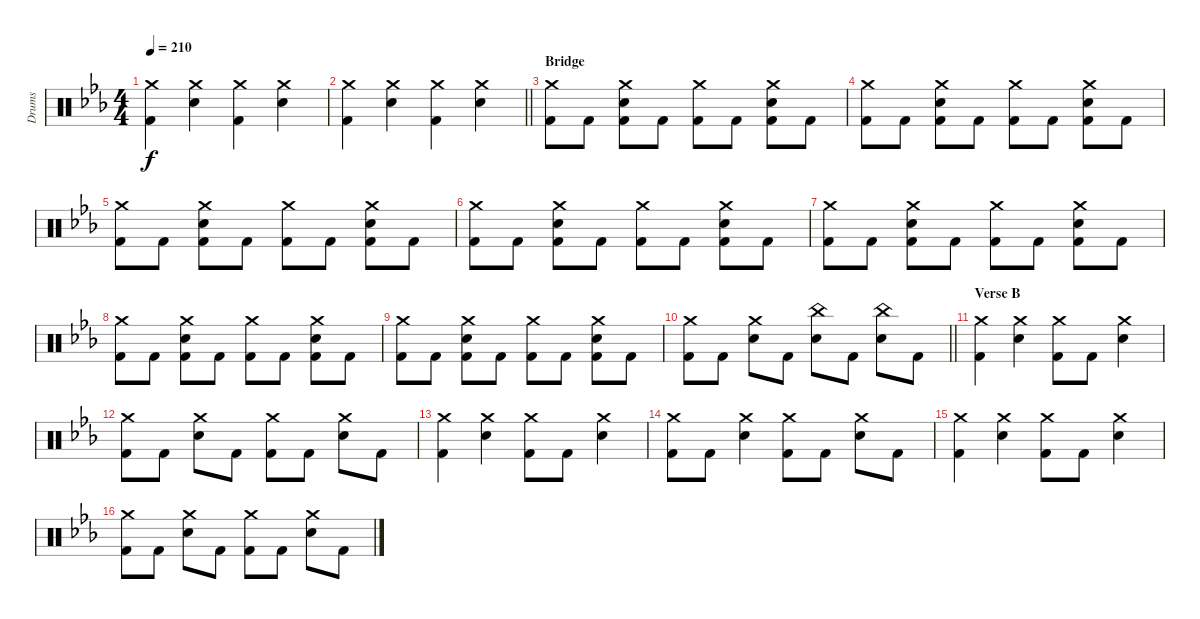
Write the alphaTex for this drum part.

\track ("Drums" "Drums") {instrument percussion}
\staff {score}
\articulation defaults
\ts (4 4)
\tempo 210
\clef neutral
\ks cminor
("Crash medium (hit)" "Kick (hit) 2").4{dy f} ("Crash medium (hit)" "Electric Snare (hit)").4 ("Crash medium (hit)" "Kick (hit) 2").4 ("Crash medium (hit)" "Electric Snare (hit)").4 |
\barLineRight lightlight
("Crash medium (hit)" "Kick (hit) 2").4 ("Crash medium (hit)" "Electric Snare (hit)").4 ("Crash medium (hit)" "Kick (hit) 2").4 ("Crash medium (hit)" "Electric Snare (hit)").4 |
\section ("" "Bridge")
("Crash medium (hit)" "Kick (hit) 2").8 "Kick (hit) 2".8 ("Crash medium (hit)" "Electric Snare (hit)" "Kick (hit) 2").8 "Kick (hit) 2".8 ("Crash medium (hit)" "Kick (hit) 2").8 "Kick (hit) 2".8 ("Crash medium (hit)" "Electric Snare (hit)" "Kick (hit) 2").8 "Kick (hit) 2".8 |
("Crash medium (hit)" "Kick (hit) 2").8 "Kick (hit) 2".8 ("Crash medium (hit)" "Electric Snare (hit)" "Kick (hit) 2").8 "Kick (hit) 2".8 ("Crash medium (hit)" "Kick (hit) 2").8 "Kick (hit) 2".8 ("Crash medium (hit)" "Electric Snare (hit)" "Kick (hit) 2").8 "Kick (hit) 2".8 |
("Crash medium (hit)" "Kick (hit) 2").8 "Kick (hit) 2".8 ("Crash medium (hit)" "Electric Snare (hit)" "Kick (hit) 2").8 "Kick (hit) 2".8 ("Crash medium (hit)" "Kick (hit) 2").8 "Kick (hit) 2".8 ("Crash medium (hit)" "Electric Snare (hit)" "Kick (hit) 2").8 "Kick (hit) 2".8 |
("Crash medium (hit)" "Kick (hit) 2").8 "Kick (hit) 2".8 ("Crash medium (hit)" "Electric Snare (hit)" "Kick (hit) 2").8 "Kick (hit) 2".8 ("Crash medium (hit)" "Kick (hit) 2").8 "Kick (hit) 2".8 ("Crash medium (hit)" "Electric Snare (hit)" "Kick (hit) 2").8 "Kick (hit) 2".8 |
("Crash medium (hit)" "Kick (hit) 2").8 "Kick (hit) 2".8 ("Crash medium (hit)" "Electric Snare (hit)" "Kick (hit) 2").8 "Kick (hit) 2".8 ("Crash medium (hit)" "Kick (hit) 2").8 "Kick (hit) 2".8 ("Crash medium (hit)" "Electric Snare (hit)" "Kick (hit) 2").8 "Kick (hit) 2".8 |
("Crash medium (hit)" "Kick (hit) 2").8 "Kick (hit) 2".8 ("Crash medium (hit)" "Electric Snare (hit)" "Kick (hit) 2").8 "Kick (hit) 2".8 ("Crash medium (hit)" "Kick (hit) 2").8 "Kick (hit) 2".8 ("Crash medium (hit)" "Electric Snare (hit)" "Kick (hit) 2").8 "Kick (hit) 2".8 |
("Crash medium (hit)" "Kick (hit) 2").8 "Kick (hit) 2".8 ("Crash medium (hit)" "Electric Snare (hit)" "Kick (hit) 2").8 "Kick (hit) 2".8 ("Crash medium (hit)" "Kick (hit) 2").8 "Kick (hit) 2".8 ("Crash medium (hit)" "Electric Snare (hit)" "Kick (hit) 2").8 "Kick (hit) 2".8 |
\barLineRight lightlight
("Crash medium (hit)" "Kick (hit) 2").8 "Kick (hit) 2".8 ("Crash medium (hit)" "Electric Snare (hit)").8 "Kick (hit) 2".8 ("China (hit)" "Electric Snare (hit)").8 "Kick (hit) 2".8 ("China (hit)" "Electric Snare (hit)").8 "Kick (hit) 2".8 |
\section ("" "Verse B")
("Crash medium (hit)" "Kick (hit) 2").4 ("Crash medium (hit)" "Electric Snare (hit)").4 ("Crash medium (hit)" "Kick (hit) 2").8 "Kick (hit) 2".8 ("Crash medium (hit)" "Electric Snare (hit)").4 |
("Crash medium (hit)" "Kick (hit) 2").8 "Kick (hit) 2".8 ("Crash medium (hit)" "Electric Snare (hit)").8 "Kick (hit) 2".8 ("Crash medium (hit)" "Kick (hit) 2").8 "Kick (hit) 2".8 ("Crash medium (hit)" "Electric Snare (hit)").8 "Kick (hit) 2".8 |
("Crash medium (hit)" "Kick (hit) 2").4 ("Crash medium (hit)" "Electric Snare (hit)").4 ("Crash medium (hit)" "Kick (hit) 2").8 "Kick (hit) 2".8 ("Crash medium (hit)" "Electric Snare (hit)").4 |
("Crash medium (hit)" "Kick (hit) 2").8 "Kick (hit) 2".8 ("Crash medium (hit)" "Electric Snare (hit)").4 ("Crash medium (hit)" "Kick (hit) 2").8 "Kick (hit) 2".8 ("Crash medium (hit)" "Electric Snare (hit)").8 "Kick (hit) 2".8 |
("Crash medium (hit)" "Kick (hit) 2").4 ("Crash medium (hit)" "Electric Snare (hit)").4 ("Crash medium (hit)" "Kick (hit) 2").8 "Kick (hit) 2".8 ("Crash medium (hit)" "Electric Snare (hit)").4 |
("Crash medium (hit)" "Kick (hit) 2").8 "Kick (hit) 2".8 ("Crash medium (hit)" "Electric Snare (hit)").8 "Kick (hit) 2".8 ("Crash medium (hit)" "Kick (hit) 2").8 "Kick (hit) 2".8 ("Crash medium (hit)" "Electric Snare (hit)").8 "Kick (hit) 2".8
